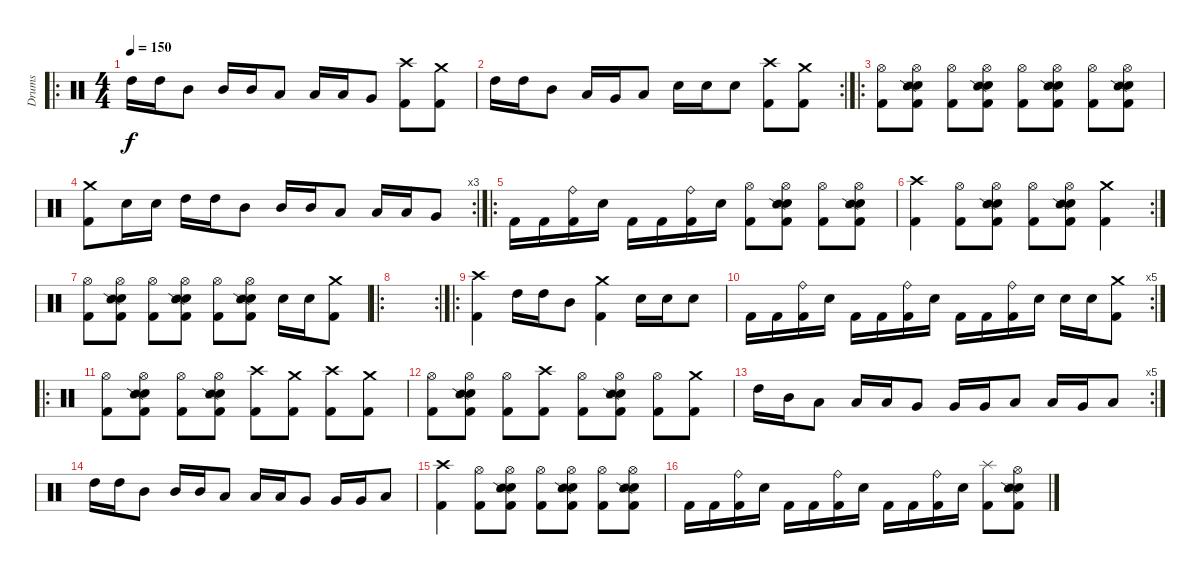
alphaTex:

\track ("Drums" "Drums") {instrument percussion}
\staff {score}
\articulation defaults
\ro
\ts (4 4)
\tempo 150
\clef neutral
\ks c "High Tom (hit)".16{dy f} "High Tom (hit)".16 "Mid Tom (hit)".8 "Mid Tom (hit)".16 "Mid Tom (hit)".16 "Low Tom (hit)".8 "Low Tom (hit)".16 "Low Tom (hit)".16 "Very Low Tom (hit)".8
("Crash high (hit)" "Kick (hit) 2").8 ("Crash medium (hit)" "Kick (hit) 2").8 |
\rc 2 "High Tom (hit)".16 "High Tom (hit)".16 "Mid Tom (hit)".8 "Low Tom (hit)".16 "Very Low Tom (hit)".16 "Low Floor Tom (hit)".8 "Electric Snare (hit)".16 "Electric Snare (hit)".16 "Electric Snare (hit)".8
("Crash high (hit)" "Kick (hit) 2").8 ("Crash medium (hit)" "Kick (hit) 2").8 |
\ro
("Hi-Hat (open)" "Kick (hit) 2").8 ("Hi-Hat (open)" "Electric Snare (hit)" "Snare (side stick) 2" "Kick (hit) 2").8 ("Hi-Hat (open)" "Kick (hit) 2").8 ("Hi-Hat (open)" "Electric Snare (hit)" "Snare (side stick) 2" "Kick (hit) 2").8 ("Hi-Hat (open)" "Kick (hit) 2").8 ("Hi-Hat (open)" "Electric Snare (hit)" "Snare (side stick) 2" "Kick (hit) 2").8 ("Hi-Hat (open)" "Kick (hit) 2").8 ("Hi-Hat (open)" "Electric Snare (hit)" "Snare (side stick) 2" "Kick (hit) 2").8 |
\rc 3
("Crash medium (hit)" "Kick (hit) 2").8 "Electric Snare (hit)".16 "Electric Snare (hit)".16 "High Tom (hit)".16 "High Tom (hit)".16 "Mid Tom (hit)".8 "Mid Tom (hit)".16 "Mid Tom (hit)".16 "Low Tom (hit)".8 "Low Tom (hit)".16 "Low Tom (hit)".16 "Very Low Tom (hit)".8 |
\ro "Kick (hit) 2".16 "Kick (hit) 2".16
("Ride (bell)" "Kick (hit) 2").16 "Electric Snare (hit)".16 "Kick (hit) 2".16 "Kick (hit) 2".16 ("Ride (bell)" "Kick (hit) 2").16 "Electric Snare (hit)".16 ("Hi-Hat (open)" "Kick (hit) 2").8 ("Hi-Hat (open)" "Electric Snare (hit)" "Snare (side stick) 2" "Kick (hit) 2").8 ("Hi-Hat (open)" "Kick (hit) 2").8 ("Hi-Hat (open)" "Electric Snare (hit)" "Snare (side stick) 2" "Kick (hit) 2").8 |
\rc 2
("Crash high (hit)" "Kick (hit) 2").4 ("Hi-Hat (open)" "Kick (hit) 2").8 ("Hi-Hat (open)" "Electric Snare (hit)" "Snare (side stick) 2" "Kick (hit) 2").8 ("Hi-Hat (open)" "Kick (hit) 2").8 ("Hi-Hat (open)" "Electric Snare (hit)" "Snare (side stick) 2" "Kick (hit) 2").8 ("Crash medium (hit)" "Kick (hit) 2").4 |
("Hi-Hat (open)" "Kick (hit) 2").8 ("Hi-Hat (open)" "Electric Snare (hit)" "Snare (side stick) 2" "Kick (hit) 2").8 ("Hi-Hat (open)" "Kick (hit) 2").8 ("Hi-Hat (open)" "Electric Snare (hit)" "Snare (side stick) 2" "Kick (hit) 2").8 ("Hi-Hat (open)" "Kick (hit) 2").8 ("Hi-Hat (open)" "Electric Snare (hit)" "Snare (side stick) 2" "Kick (hit) 2").8 "Electric Snare (hit)".16 "Electric Snare (hit)".16 ("Crash medium (hit)" "Kick (hit) 2").8 |
\ro
\rc 2
|
\ro
("Crash high (hit)" "Kick (hit) 2").4 "High Tom (hit)".16 "High Tom (hit)".16 "Mid Tom (hit)".8 ("Crash medium (hit)" "Kick (hit) 2").4 "Electric Snare (hit)".16 "Electric Snare (hit)".16 "Electric Snare (hit)".8 |
\rc 5 "Kick (hit) 2".16 "Kick (hit) 2".16
("Ride (bell)" "Kick (hit) 2").16 "Electric Snare (hit)".16 "Kick (hit) 2".16 "Kick (hit) 2".16 ("Ride (bell)" "Kick (hit) 2").16 "Electric Snare (hit)".16 "Kick (hit) 2".16 "Kick (hit) 2".16 ("Ride (bell)" "Kick (hit) 2").16 "Electric Snare (hit)".16 "Electric Snare (hit)".16 "Electric Snare (hit)".16 ("Crash medium (hit)" "Kick (hit) 2").8 |
\ro
("Hi-Hat (open)" "Kick (hit) 2").8 ("Hi-Hat (open)" "Electric Snare (hit)" "Snare (side stick) 2" "Kick (hit) 2").8 ("Hi-Hat (open)" "Kick (hit) 2").8 ("Hi-Hat (open)" "Electric Snare (hit)" "Snare (side stick) 2" "Kick (hit) 2").8 ("Crash high (hit)" "Kick (hit) 2").8 ("Crash medium (hit)" "Kick (hit) 2").8 ("Crash high (hit)" "Kick (hit) 2").8 ("Crash medium (hit)" "Kick (hit) 2").8 |
("Hi-Hat (open)" "Kick (hit) 2").8 ("Hi-Hat (open)" "Electric Snare (hit)" "Snare (side stick) 2" "Kick (hit) 2").8 ("Hi-Hat (open)" "Kick (hit) 2").8 ("Crash high (hit)" "Kick (hit) 2").8 ("Hi-Hat (open)" "Kick (hit) 2").8 ("Hi-Hat (open)" "Electric Snare (hit)" "Snare (side stick) 2" "Kick (hit) 2").8 ("Hi-Hat (open)" "Kick (hit) 2").8 ("Crash medium (hit)" "Kick (hit) 2").8 |
\rc 5 "High Tom (hit)".16 "Mid Tom (hit)".16 "Low Tom (hit)".8 "Low Tom (hit)".16 "Low Tom (hit)".16 "Very Low Tom (hit)".8 "Very Low Tom (hit)".16 "Very Low Tom (hit)".16 "Low Floor Tom (hit)".8 "Low Tom (hit)".16 "Very Low Tom (hit)".16 "Low Floor Tom (hit)".8
|
"High Tom (hit)".16 "High Tom (hit)".16 "Mid Tom (hit)".8 "Mid Tom (hit)".16 "Mid Tom (hit)".16 "Low Tom (hit)".8 "Low Tom (hit)".16 "Low Tom (hit)".16 "Very Low Tom (hit)".8 "Very Low Tom (hit)".16 "Very Low Tom (hit)".16 "Low Floor Tom (hit)".8 |
("Crash high (hit)" "Kick (hit) 2").4 ("Hi-Hat (open)" "Kick (hit) 2").8 ("Hi-Hat (open)" "Electric Snare (hit)" "Snare (side stick) 2" "Kick (hit) 2").8 ("Hi-Hat (open)" "Kick (hit) 2").8 ("Hi-Hat (open)" "Electric Snare (hit)" "Snare (side stick) 2" "Kick (hit) 2").8 ("Hi-Hat (open)" "Kick (hit) 2").8 ("Hi-Hat (open)" "Electric Snare (hit)" "Snare (side stick) 2" "Kick (hit) 2").8 |
"Kick (hit) 2".16 "Kick (hit) 2".16 ("Ride (bell)" "Kick (hit) 2").16 "Electric Snare (hit)".16 "Kick (hit) 2".16 "Kick (hit) 2".16 ("Ride (bell)" "Kick (hit) 2").16 "Electric Snare (hit)".16 "Kick (hit) 2".16 "Kick (hit) 2".16 ("Ride (bell)" "Kick (hit) 2").16 "Electric Snare (hit)".16 ("Splash (hit)" "Kick (hit) 2").8 ("Hi-Hat (open)" "Electric Snare (hit)" "Snare (side stick) 2" "Kick (hit) 2").8
